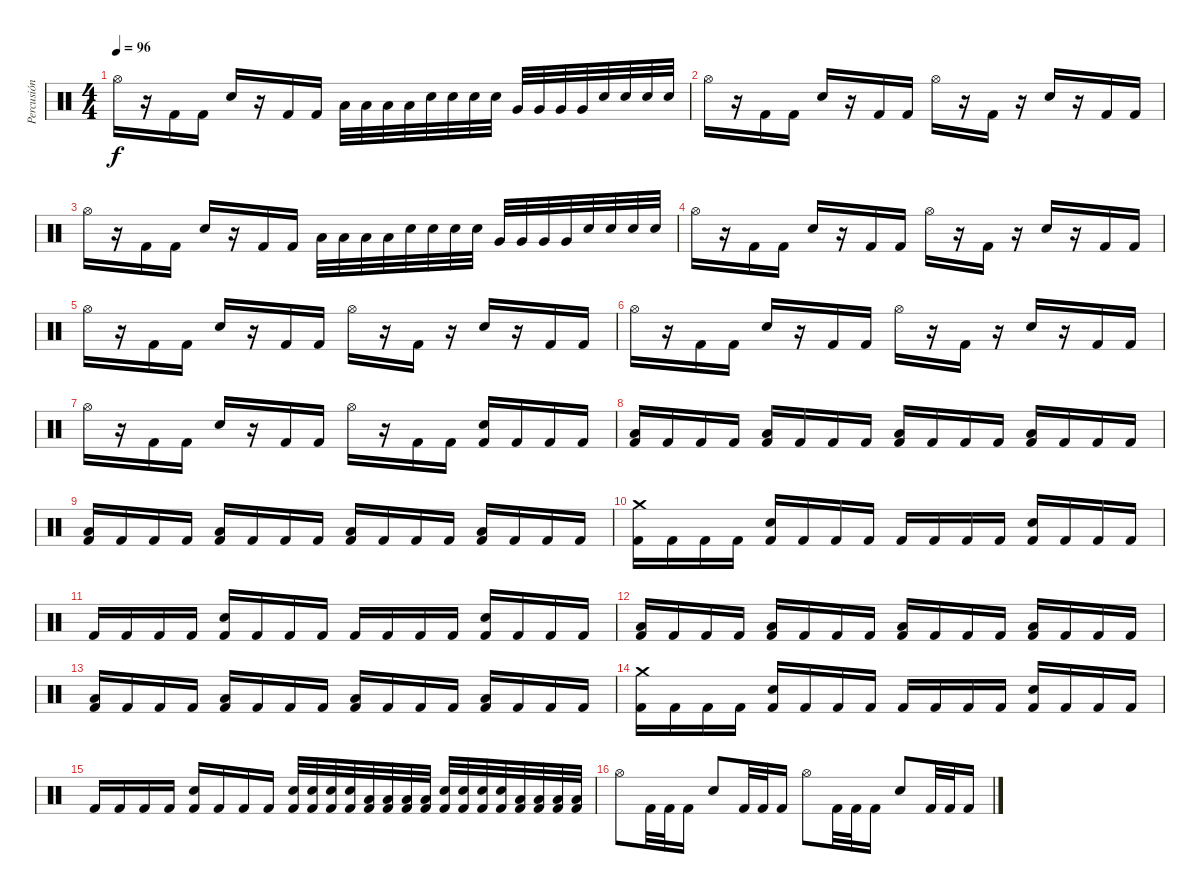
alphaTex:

\track ("Percusión" "Percusión") {instrument percussion}
\staff {score}
\articulation defaults
\ts (4 4)
\tempo 96
\clef neutral
\ks c "Hi-Hat (open)".16{dy f}
r.16 "Kick (hit) 2".16 "Kick (hit) 2".16 "Snare (hit) 2".16 r.16 "Kick (hit) 2".16 "Kick (hit) 2".16 "Low Tom (hit)".32 "Low Tom (hit)".32 "Low Tom (hit)".32 "Low Tom (hit)".32 "Snare (hit) 2".32 "Snare (hit) 2".32 "Snare (hit) 2".32 "Snare (hit) 2".32 "Very Low Tom (hit)".32 "Very Low Tom (hit)".32 "Very Low Tom (hit)".32 "Very Low Tom (hit)".32 "Snare (hit) 2".32 "Snare (hit) 2".32 "Snare (hit) 2".32 "Snare (hit) 2".32 |
"Hi-Hat (open)".16 r.16 "Kick (hit) 2".16 "Kick (hit) 2".16 "Snare (hit) 2".16 r.16 "Kick (hit) 2".16 "Kick (hit) 2".16 "Hi-Hat (open)".16 r.16 "Kick (hit) 2".16 r.16 "Snare (hit) 2".16 r.16 "Kick (hit) 2".16 "Kick (hit) 2".16 |
"Hi-Hat (open)".16 r.16 "Kick (hit) 2".16 "Kick (hit) 2".16 "Snare (hit) 2".16 r.16 "Kick (hit) 2".16 "Kick (hit) 2".16 "Low Tom (hit)".32 "Low Tom (hit)".32 "Low Tom (hit)".32 "Low Tom (hit)".32 "Snare (hit) 2".32 "Snare (hit) 2".32 "Snare (hit) 2".32 "Snare (hit) 2".32 "Very Low Tom (hit)".32 "Very Low Tom (hit)".32 "Very Low Tom (hit)".32 "Very Low Tom (hit)".32 "Snare (hit) 2".32 "Snare (hit) 2".32 "Snare (hit) 2".32 "Snare (hit) 2".32 |
"Hi-Hat (open)".16 r.16 "Kick (hit) 2".16 "Kick (hit) 2".16 "Snare (hit) 2".16 r.16 "Kick (hit) 2".16 "Kick (hit) 2".16 "Hi-Hat (open)".16 r.16 "Kick (hit) 2".16 r.16 "Snare (hit) 2".16 r.16 "Kick (hit) 2".16 "Kick (hit) 2".16 |
"Hi-Hat (open)".16 r.16 "Kick (hit) 2".16 "Kick (hit) 2".16 "Snare (hit) 2".16 r.16 "Kick (hit) 2".16 "Kick (hit) 2".16 "Hi-Hat (open)".16 r.16 "Kick (hit) 2".16 r.16 "Snare (hit) 2".16 r.16 "Kick (hit) 2".16 "Kick (hit) 2".16 |
"Hi-Hat (open)".16 r.16 "Kick (hit) 2".16 "Kick (hit) 2".16 "Snare (hit) 2".16 r.16 "Kick (hit) 2".16 "Kick (hit) 2".16 "Hi-Hat (open)".16 r.16 "Kick (hit) 2".16 r.16 "Snare (hit) 2".16 r.16 "Kick (hit) 2".16 "Kick (hit) 2".16 |
"Hi-Hat (open)".16 r.16 "Kick (hit) 2".16 "Kick (hit) 2".16 "Snare (hit) 2".16 r.16 "Kick (hit) 2".16 "Kick (hit) 2".16 "Hi-Hat (open)".16 r.16 "Kick (hit) 2".16 "Kick (hit) 2".16 ("Snare (hit) 2" "Kick (hit) 2").16 "Kick (hit) 2".16 "Kick (hit) 2".16 "Kick (hit) 2".16 |
("Kick (hit) 2" "Low Tom (hit)").16 "Kick (hit) 2".16 "Kick (hit) 2".16 "Kick (hit) 2".16 ("Kick (hit) 2" "Low Floor Tom (hit)").16 "Kick (hit) 2".16 "Kick (hit) 2".16 "Kick (hit) 2".16 ("Kick (hit) 2" "Low Tom (hit)").16 "Kick (hit) 2".16 "Kick (hit) 2".16 "Kick (hit) 2".16 ("Kick (hit) 2" "Low Floor Tom (hit)").16 "Kick (hit) 2".16 "Kick (hit) 2".16 "Kick (hit) 2".16 |
("Kick (hit) 2" "Low Tom (hit)").16 "Kick (hit) 2".16 "Kick (hit) 2".16 "Kick (hit) 2".16 ("Kick (hit) 2" "Low Floor Tom (hit)").16 "Kick (hit) 2".16 "Kick (hit) 2".16 "Kick (hit) 2".16 ("Kick (hit) 2" "Low Tom (hit)").16 "Kick (hit) 2".16 "Kick (hit) 2".16 "Kick (hit) 2".16 ("Kick (hit) 2" "Low Floor Tom (hit)").16 "Kick (hit) 2".16 "Kick (hit) 2".16 "Kick (hit) 2".16 |
("Kick (hit) 2" "Crash medium (hit)").16 "Kick (hit) 2".16 "Kick (hit) 2".16 "Kick (hit) 2".16 ("Kick (hit) 2" "Snare (hit) 2").16 "Kick (hit) 2".16 "Kick (hit) 2".16 "Kick (hit) 2".16 "Kick (hit) 2".16 "Kick (hit) 2".16 "Kick (hit) 2".16 "Kick (hit) 2".16 ("Kick (hit) 2" "Snare (hit) 2").16 "Kick (hit) 2".16 "Kick (hit) 2".16 "Kick (hit) 2".16 |
"Kick (hit) 2".16 "Kick (hit) 2".16 "Kick (hit) 2".16 "Kick (hit) 2".16 ("Kick (hit) 2" "Snare (hit) 2").16 "Kick (hit) 2".16 "Kick (hit) 2".16 "Kick (hit) 2".16 "Kick (hit) 2".16 "Kick (hit) 2".16 "Kick (hit) 2".16 "Kick (hit) 2".16 ("Kick (hit) 2" "Snare (hit) 2").16 "Kick (hit) 2".16 "Kick (hit) 2".16 "Kick (hit) 2".16 |
("Kick (hit) 2" "Low Tom (hit)").16 "Kick (hit) 2".16 "Kick (hit) 2".16 "Kick (hit) 2".16 ("Kick (hit) 2" "Low Floor Tom (hit)").16 "Kick (hit) 2".16 "Kick (hit) 2".16 "Kick (hit) 2".16 ("Kick (hit) 2" "Low Tom (hit)").16 "Kick (hit) 2".16 "Kick (hit) 2".16 "Kick (hit) 2".16 ("Kick (hit) 2" "Low Floor Tom (hit)").16 "Kick (hit) 2".16 "Kick (hit) 2".16 "Kick (hit) 2".16 |
("Kick (hit) 2" "Low Tom (hit)").16 "Kick (hit) 2".16 "Kick (hit) 2".16 "Kick (hit) 2".16 ("Kick (hit) 2" "Low Floor Tom (hit)").16 "Kick (hit) 2".16 "Kick (hit) 2".16 "Kick (hit) 2".16 ("Kick (hit) 2" "Low Tom (hit)").16 "Kick (hit) 2".16 "Kick (hit) 2".16 "Kick (hit) 2".16 ("Kick (hit) 2" "Low Floor Tom (hit)").16 "Kick (hit) 2".16 "Kick (hit) 2".16 "Kick (hit) 2".16 |
("Kick (hit) 2" "Crash medium (hit)").16 "Kick (hit) 2".16 "Kick (hit) 2".16 "Kick (hit) 2".16 ("Kick (hit) 2" "Snare (hit) 2").16 "Kick (hit) 2".16 "Kick (hit) 2".16 "Kick (hit) 2".16 "Kick (hit) 2".16 "Kick (hit) 2".16 "Kick (hit) 2".16 "Kick (hit) 2".16 ("Kick (hit) 2" "Snare (hit) 2").16 "Kick (hit) 2".16 "Kick (hit) 2".16 "Kick (hit) 2".16 |
"Kick (hit) 2".16 "Kick (hit) 2".16 "Kick (hit) 2".16 "Kick (hit) 2".16 ("Kick (hit) 2" "Snare (hit) 2").16 "Kick (hit) 2".16 "Kick (hit) 2".16 "Kick (hit) 2".16 ("Kick (hit) 2" "Snare (hit) 2").32 ("Kick (hit) 2" "Snare (hit) 2").32 ("Kick (hit) 2" "Snare (hit) 2").32 ("Kick (hit) 2" "Snare (hit) 2").32 ("Kick (hit) 2" "Low Tom (hit)").32 ("Kick (hit) 2" "Low Tom (hit)").32 ("Kick (hit) 2" "Low Tom (hit)").32 ("Kick (hit) 2" "Low Tom (hit)").32 ("Kick (hit) 2" "Snare (hit) 2").32 ("Kick (hit) 2" "Snare (hit) 2").32 ("Kick (hit) 2" "Snare (hit) 2").32 ("Kick (hit) 2" "Snare (hit) 2").32 ("Kick (hit) 2" "Low Tom (hit)").32 ("Kick (hit) 2" "Low Tom (hit)").32 ("Kick (hit) 2" "Low Tom (hit)").32 ("Kick (hit) 2" "Low Tom (hit)").32 |
"Hi-Hat (open)".8 "Kick (hit) 2".32 "Kick (hit) 2".32 "Kick (hit) 2".16 "Snare (hit) 2".8 "Kick (hit) 2".32 "Kick (hit) 2".32 "Kick (hit) 2".16 "Hi-Hat (open)".8 "Kick (hit) 2".32 "Kick (hit) 2".32 "Kick (hit) 2".16 "Snare (hit) 2".8 "Kick (hit) 2".32 "Kick (hit) 2".32 "Kick (hit) 2".16
